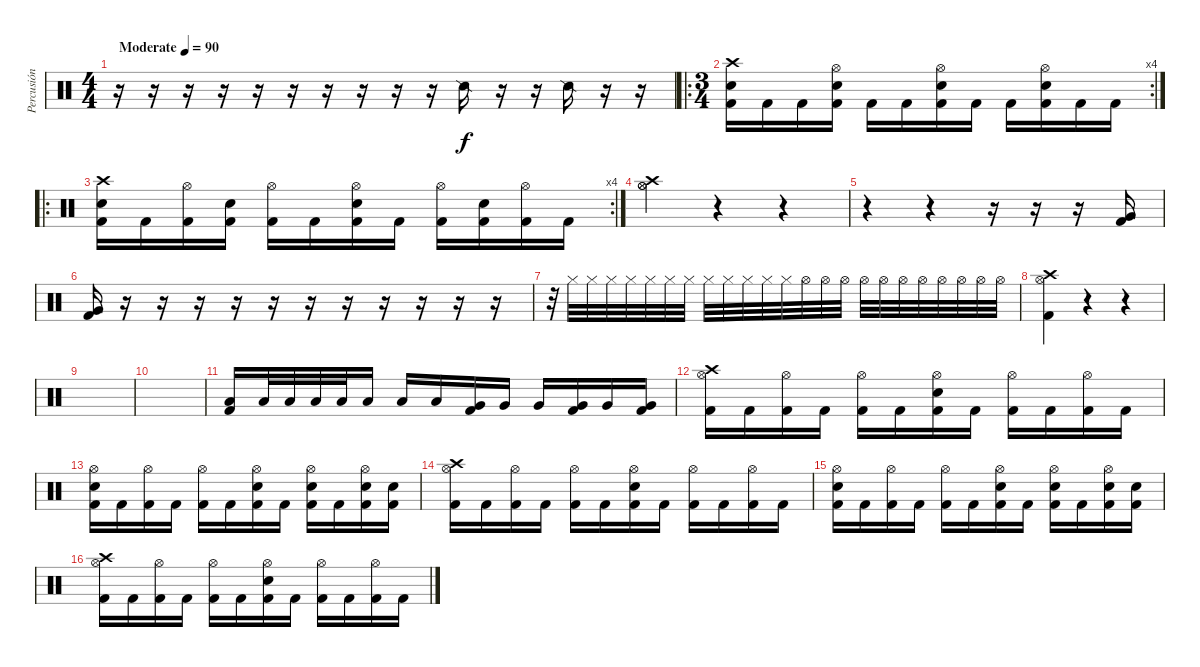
\track ("Percusión" "Percusión") {instrument percussion}
\staff {score}
\articulation defaults
\ts (4 4)
\tempo (90 "Moderate")
\clef neutral
\ks c
r.16{dy f} r.16 r.16 r.16 r.16 r.16 r.16 r.16 r.16 r.16 "Snare (side stick) 2".16 r.16 r.16 "Snare (side stick) 2".16 r.16 r.16 |
\ro
\rc 4
\ts (3 4)
("Crash high (hit)" "Electric Snare (hit)" "Kick (hit) 2").16 "Kick (hit) 2".16 "Kick (hit) 2".16 ("Hi-Hat (open)" "Electric Snare (hit)" "Kick (hit) 2").16 "Kick (hit) 2".16 "Kick (hit) 2".16 ("Hi-Hat (open)" "Electric Snare (hit)" "Kick (hit) 2").16 "Kick (hit) 2".16 "Kick (hit) 2".16 ("Hi-Hat (open)" "Electric Snare (hit)" "Kick (hit) 2").16 "Kick (hit) 2".16 "Kick (hit) 2".16 |
\ro
\rc 4
("Crash high (hit)" "Electric Snare (hit)" "Kick (hit) 2").16 "Kick (hit) 2".16 ("Hi-Hat (open)" "Kick (hit) 2").16 ("Electric Snare (hit)" "Kick (hit) 2").16 ("Hi-Hat (open)" "Kick (hit) 2").16 "Kick (hit) 2".16 ("Hi-Hat (open)" "Electric Snare (hit)" "Kick (hit) 2").16 "Kick (hit) 2".16 ("Hi-Hat (open)" "Kick (hit) 2").16 ("Electric Snare (hit)" "Kick (hit) 2").16 ("Hi-Hat (open)" "Kick (hit) 2").16 "Kick (hit) 2".16 |
("Hi-Hat (open)" "Crash high (hit)" "Hi-Hat (open)").4 r.4 r.4 |
r.4 r.4 r.16 r.16 r.16 ("Very Low Tom (hit)" "Kick (hit) 2").16 |
("Very Low Tom (hit)" "Kick (hit) 2").16 r.16 r.16 r.16 r.16 r.16 r.16 r.16 r.16 r.16 r.16 r.16 |
r.32 "Hi-Hat (closed)".32{volume 4} "Hi-Hat (closed)".32 "Hi-Hat (closed)".32 "Hi-Hat (closed)".32 "Hi-Hat (closed)".32 "Hi-Hat (closed)".32 "Hi-Hat (closed)".32 "Hi-Hat (closed)".32 "Hi-Hat (closed)".32 "Hi-Hat (closed)".32{volume 16} "Hi-Hat (closed)".32 "Hi-Hat (closed)".32 "Hi-Hat (open)".32 "Hi-Hat (open)".32 "Hi-Hat (open)".32 "Hi-Hat (open)".32 "Hi-Hat (open)".32 "Hi-Hat (open)".32 "Hi-Hat (open)".32 "Hi-Hat (open)".32 "Hi-Hat (open)".32 "Hi-Hat (open)".32 "Hi-Hat (open)".32 |
("Hi-Hat (open)" "Crash high (hit)" "Kick (hit) 2").4 r.4 r.4 |
|
|
("Low Floor Tom (hit)" "Kick (hit) 2").16 "Low Floor Tom (hit)".32 "Low Floor Tom (hit)".32 "Low Floor Tom (hit)".32 "Low Floor Tom (hit)".32 "Low Floor Tom (hit)".16 "Low Floor Tom (hit)".16 "Low Floor Tom (hit)".16 ("Very Low Tom (hit)" "Kick (hit) 2").16 "Very Low Tom (hit)".16 "Very Low Tom (hit)".16 ("Very Low Tom (hit)" "Kick (hit) 2").16 "Very Low Tom (hit)".16 ("Very Low Tom (hit)" "Kick (hit) 2").16 |
("Hi-Hat (open)" "Crash high (hit)" "Kick (hit) 2").16 "Kick (hit) 2".16 ("Hi-Hat (open)" "Kick (hit) 2").16 "Kick (hit) 2".16 ("Hi-Hat (open)" "Kick (hit) 2").16 "Kick (hit) 2".16 ("Hi-Hat (open)" "Electric Snare (hit)" "Kick (hit) 2").16 "Kick (hit) 2".16 ("Hi-Hat (open)" "Kick (hit) 2").16 "Kick (hit) 2".16 ("Hi-Hat (open)" "Kick (hit) 2").16 "Kick (hit) 2".16 |
("Hi-Hat (open)" "Electric Snare (hit)" "Kick (hit) 2").16 "Kick (hit) 2".16 ("Hi-Hat (open)" "Kick (hit) 2").16 "Kick (hit) 2".16 ("Hi-Hat (open)" "Kick (hit) 2").16 "Kick (hit) 2".16 ("Hi-Hat (open)" "Electric Snare (hit)" "Kick (hit) 2").16 "Kick (hit) 2".16 ("Hi-Hat (open)" "Electric Snare (hit)" "Kick (hit) 2").16 "Kick (hit) 2".16 ("Hi-Hat (open)" "Electric Snare (hit)" "Kick (hit) 2").16 ("Electric Snare (hit)" "Kick (hit) 2").16 |
("Hi-Hat (open)" "Crash high (hit)" "Kick (hit) 2").16 "Kick (hit) 2".16 ("Hi-Hat (open)" "Kick (hit) 2").16 "Kick (hit) 2".16 ("Hi-Hat (open)" "Kick (hit) 2").16 "Kick (hit) 2".16 ("Hi-Hat (open)" "Electric Snare (hit)" "Kick (hit) 2").16 "Kick (hit) 2".16 ("Hi-Hat (open)" "Kick (hit) 2").16 "Kick (hit) 2".16 ("Hi-Hat (open)" "Kick (hit) 2").16 "Kick (hit) 2".16 |
("Hi-Hat (open)" "Electric Snare (hit)" "Kick (hit) 2").16 "Kick (hit) 2".16 ("Hi-Hat (open)" "Kick (hit) 2").16 "Kick (hit) 2".16 ("Hi-Hat (open)" "Kick (hit) 2").16 "Kick (hit) 2".16 ("Hi-Hat (open)" "Electric Snare (hit)" "Kick (hit) 2").16 "Kick (hit) 2".16 ("Hi-Hat (open)" "Electric Snare (hit)" "Kick (hit) 2").16 "Kick (hit) 2".16 ("Hi-Hat (open)" "Electric Snare (hit)" "Kick (hit) 2").16 ("Electric Snare (hit)" "Kick (hit) 2").16 |
("Hi-Hat (open)" "Crash high (hit)" "Kick (hit) 2").16 "Kick (hit) 2".16 ("Hi-Hat (open)" "Kick (hit) 2").16 "Kick (hit) 2".16 ("Hi-Hat (open)" "Kick (hit) 2").16 "Kick (hit) 2".16 ("Hi-Hat (open)" "Electric Snare (hit)" "Kick (hit) 2").16 "Kick (hit) 2".16 ("Hi-Hat (open)" "Kick (hit) 2").16 "Kick (hit) 2".16 ("Hi-Hat (open)" "Kick (hit) 2").16 "Kick (hit) 2".16
